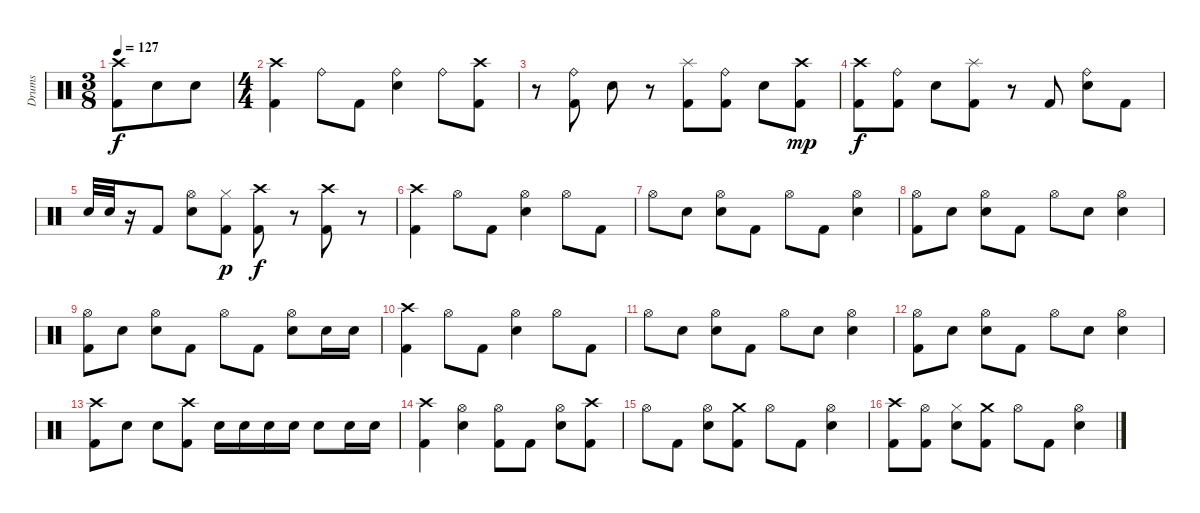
\track ("Drums" "Drums") {instrument percussion}
\staff {score}
\articulation defaults
\ts (3 8)
\tempo 127
\clef neutral
\ks c
("Crash high (hit)" "Kick (hit) 2").8{dy f} "Electric Snare (hit)".8 "Electric Snare (hit)".8 |
\ts (4 4)
("Crash high (hit)" "Kick (hit) 2").4 "Ride (bell)".8 "Kick (hit) 2".8 ("Ride (bell)" "Electric Snare (hit)").4 "Ride (bell)".8 ("Kick (hit) 2" "Crash high (hit)").8 |
r.8 ("Kick (hit) 2" "Ride (bell)").8 "Electric Snare (hit)".8 r.8 ("Kick (hit) 2" "Splash (hit)").8 ("Kick (hit) 2" "Ride (bell)").8 "Electric Snare (hit)".8 ("Kick (hit) 2" "Crash high (hit)").8{dy mp} |
("Kick (hit) 2" "Crash high (hit)").8{dy f} ("Kick (hit) 2" "Ride (bell)").8 "Electric Snare (hit)".8 ("Kick (hit) 2" "Splash (hit)").8 r.8 "Kick (hit) 2".8 ("Electric Snare (hit)" "Ride (bell)").8 "Kick (hit) 2".8 |
"Electric Snare (hit)".32 "Electric Snare (hit)".32 r.16 "Kick (hit) 2".8 ("Electric Snare (hit)" "Hi-Hat (open)").8 ("Kick (hit) 2" "Hi-Hat (closed)").8{dy p} ("Kick (hit) 2" "Crash high (hit)").8{dy f} r.8 ("Crash high (hit)" "Kick (hit) 2").8 r.8 |
("Crash high (hit)" "Kick (hit) 2").4 "Hi-Hat (open)".8 "Kick (hit) 2".8 ("Electric Snare (hit)" "Hi-Hat (open)").4 "Hi-Hat (open)".8 "Kick (hit) 2".8 |
"Hi-Hat (open)".8 "Electric Snare (hit)".8 ("Electric Snare (hit)" "Hi-Hat (open)").8 "Kick (hit) 2".8 "Hi-Hat (open)".8 "Kick (hit) 2".8 ("Electric Snare (hit)" "Hi-Hat (open)").4 |
("Kick (hit) 2" "Hi-Hat (open)").8 "Electric Snare (hit)".8 ("Hi-Hat (open)" "Electric Snare (hit)").8 "Kick (hit) 2".8 "Hi-Hat (open)".8 "Electric Snare (hit)".8 ("Hi-Hat (open)" "Electric Snare (hit)").4 |
("Hi-Hat (open)" "Kick (hit) 2").8 "Electric Snare (hit)".8 ("Hi-Hat (open)" "Electric Snare (hit)").8 "Kick (hit) 2".8 "Hi-Hat (open)".8 "Kick (hit) 2".8 ("Hi-Hat (open)" "Electric Snare (hit)").8 "Electric Snare (hit)".16 "Electric Snare (hit)".16 |
("Kick (hit) 2" "Crash high (hit)").4 "Hi-Hat (open)".8 "Kick (hit) 2".8 ("Electric Snare (hit)" "Hi-Hat (open)").4 "Hi-Hat (open)".8 "Kick (hit) 2".8 |
"Hi-Hat (open)".8 "Electric Snare (hit)".8 ("Electric Snare (hit)" "Hi-Hat (open)").8 "Kick (hit) 2".8 "Hi-Hat (open)".8 "Electric Snare (hit)".8 ("Electric Snare (hit)" "Hi-Hat (open)").4 |
("Hi-Hat (open)" "Kick (hit) 2").8 "Electric Snare (hit)".8 ("Hi-Hat (open)" "Electric Snare (hit)").8 "Kick (hit) 2".8 "Hi-Hat (open)".8 "Electric Snare (hit)".8 ("Hi-Hat (open)" "Electric Snare (hit)").4 |
("Crash high (hit)" "Kick (hit) 2").8 "Electric Snare (hit)".8 "Electric Snare (hit)".8 ("Crash high (hit)" "Kick (hit) 2").8 "Electric Snare (hit)".16 "Electric Snare (hit)".16 "Electric Snare (hit)".16 "Electric Snare (hit)".16 "Electric Snare (hit)".8 "Electric Snare (hit)".16 "Electric Snare (hit)".16 |
("Crash high (hit)" "Kick (hit) 2").4 ("Hi-Hat (open)" "Electric Snare (hit)").4 ("Hi-Hat (open)" "Kick (hit) 2").8 "Kick (hit) 2".8 ("Electric Snare (hit)" "Hi-Hat (open)").8 ("Kick (hit) 2" "Crash high (hit)").8 |
"Hi-Hat (open)".8 "Kick (hit) 2".8 ("Hi-Hat (open)" "Electric Snare (hit)").8 ("Kick (hit) 2" "Crash medium (hit)").8 "Hi-Hat (open)".8 "Kick (hit) 2".8 ("Hi-Hat (open)" "Electric Snare (hit)").4 |
("Kick (hit) 2" "Crash high (hit)").8 ("Kick (hit) 2" "Hi-Hat (open)").8 ("Electric Snare (hit)" "Hi-Hat (closed)").8 ("Kick (hit) 2" "Crash medium (hit)").8 "Hi-Hat (open)".8 "Kick (hit) 2".8 ("Electric Snare (hit)" "Hi-Hat (open)").4
